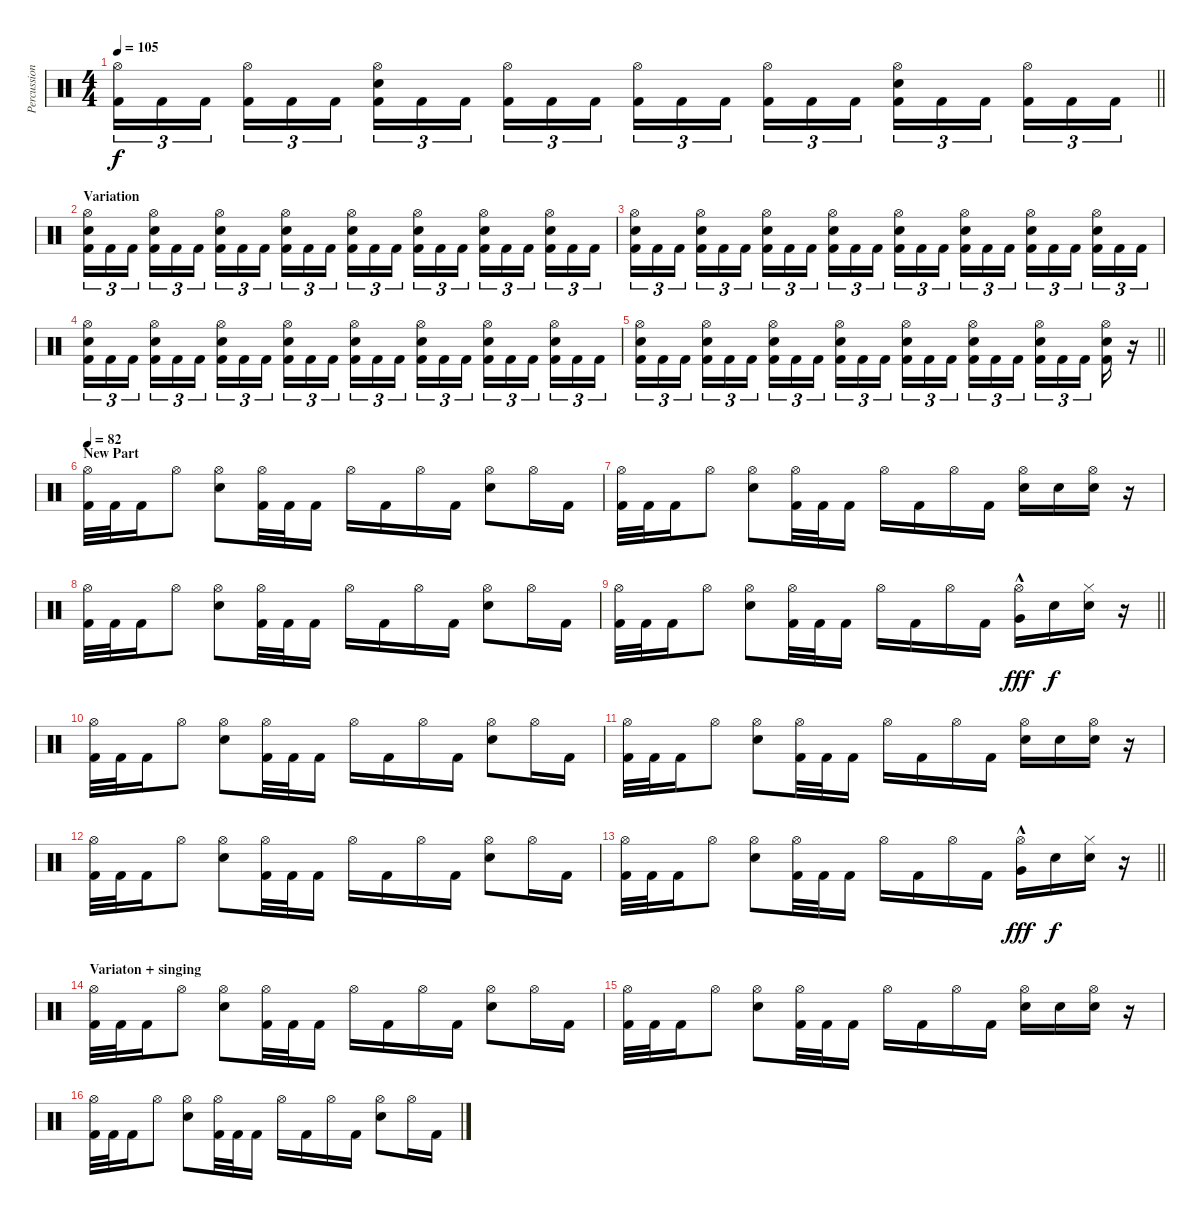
\track ("Percussion" "Percussion") {instrument percussion}
\staff {score}
\articulation defaults
\ts (4 4)
\tempo 105
\clef neutral
\barLineRight lightlight
\ks c
("Hi-Hat (open)" "Kick (hit) 2").16{tu (3 2) dy f} "Kick (hit) 2".16{tu (3 2)} "Kick (hit) 2".16{tu (3 2) beam splitsecondary} ("Hi-Hat (open)" "Kick (hit) 2").16{tu (3 2)} "Kick (hit) 2".16{tu (3 2)} "Kick (hit) 2".16{tu (3 2)} ("Hi-Hat (open)" "Electric Snare (hit)" "Kick (hit) 2").16{tu (3 2)} "Kick (hit) 2".16{tu (3 2)} "Kick (hit) 2".16{tu (3 2) beam splitsecondary} ("Hi-Hat (open)" "Kick (hit) 2").16{tu (3 2)} "Kick (hit) 2".16{tu (3 2)} "Kick (hit) 2".16{tu (3 2)} ("Hi-Hat (open)" "Kick (hit) 2").16{tu (3 2)} "Kick (hit) 2".16{tu (3 2)} "Kick (hit) 2".16{tu (3 2) beam splitsecondary} ("Hi-Hat (open)" "Kick (hit) 2").16{tu (3 2)} "Kick (hit) 2".16{tu (3 2)} "Kick (hit) 2".16{tu (3 2)} ("Hi-Hat (open)" "Electric Snare (hit)" "Kick (hit) 2").16{tu (3 2)} "Kick (hit) 2".16{tu (3 2)} "Kick (hit) 2".16{tu (3 2) beam splitsecondary} ("Hi-Hat (open)" "Kick (hit) 2").16{tu (3 2)} "Kick (hit) 2".16{tu (3 2)} "Kick (hit) 2".16{tu (3 2)} |
\section ("" "Variation")
("Hi-Hat (open)" "Electric Snare (hit)" "Kick (hit) 2").16{tu (3 2)} "Kick (hit) 2".16{tu (3 2)} "Kick (hit) 2".16{tu (3 2) beam splitsecondary} ("Hi-Hat (open)" "Electric Snare (hit)" "Kick (hit) 2").16{tu (3 2)} "Kick (hit) 2".16{tu (3 2)} "Kick (hit) 2".16{tu (3 2)} ("Hi-Hat (open)" "Electric Snare (hit)" "Kick (hit) 2").16{tu (3 2)} "Kick (hit) 2".16{tu (3 2)} "Kick (hit) 2".16{tu (3 2) beam splitsecondary} ("Hi-Hat (open)" "Electric Snare (hit)" "Kick (hit) 2").16{tu (3 2)} "Kick (hit) 2".16{tu (3 2)} "Kick (hit) 2".16{tu (3 2)} ("Hi-Hat (open)" "Electric Snare (hit)" "Kick (hit) 2").16{tu (3 2)} "Kick (hit) 2".16{tu (3 2)} "Kick (hit) 2".16{tu (3 2) beam splitsecondary} ("Hi-Hat (open)" "Electric Snare (hit)" "Kick (hit) 2").16{tu (3 2)} "Kick (hit) 2".16{tu (3 2)} "Kick (hit) 2".16{tu (3 2)} ("Hi-Hat (open)" "Electric Snare (hit)" "Kick (hit) 2").16{tu (3 2)} "Kick (hit) 2".16{tu (3 2)} "Kick (hit) 2".16{tu (3 2) beam splitsecondary} ("Hi-Hat (open)" "Electric Snare (hit)" "Kick (hit) 2").16{tu (3 2)} "Kick (hit) 2".16{tu (3 2)} "Kick (hit) 2".16{tu (3 2)} |
("Hi-Hat (open)" "Electric Snare (hit)" "Kick (hit) 2").16{tu (3 2)} "Kick (hit) 2".16{tu (3 2)} "Kick (hit) 2".16{tu (3 2) beam splitsecondary} ("Hi-Hat (open)" "Electric Snare (hit)" "Kick (hit) 2").16{tu (3 2)} "Kick (hit) 2".16{tu (3 2)} "Kick (hit) 2".16{tu (3 2)} ("Hi-Hat (open)" "Electric Snare (hit)" "Kick (hit) 2").16{tu (3 2)} "Kick (hit) 2".16{tu (3 2)} "Kick (hit) 2".16{tu (3 2) beam splitsecondary} ("Hi-Hat (open)" "Electric Snare (hit)" "Kick (hit) 2").16{tu (3 2)} "Kick (hit) 2".16{tu (3 2)} "Kick (hit) 2".16{tu (3 2)} ("Hi-Hat (open)" "Electric Snare (hit)" "Kick (hit) 2").16{tu (3 2)} "Kick (hit) 2".16{tu (3 2)} "Kick (hit) 2".16{tu (3 2) beam splitsecondary} ("Hi-Hat (open)" "Electric Snare (hit)" "Kick (hit) 2").16{tu (3 2)} "Kick (hit) 2".16{tu (3 2)} "Kick (hit) 2".16{tu (3 2)} ("Hi-Hat (open)" "Electric Snare (hit)" "Kick (hit) 2").16{tu (3 2)} "Kick (hit) 2".16{tu (3 2)} "Kick (hit) 2".16{tu (3 2) beam splitsecondary} ("Hi-Hat (open)" "Electric Snare (hit)" "Kick (hit) 2").16{tu (3 2)} "Kick (hit) 2".16{tu (3 2)} "Kick (hit) 2".16{tu (3 2)} |
("Hi-Hat (open)" "Electric Snare (hit)" "Kick (hit) 2").16{tu (3 2)} "Kick (hit) 2".16{tu (3 2)} "Kick (hit) 2".16{tu (3 2) beam splitsecondary} ("Hi-Hat (open)" "Electric Snare (hit)" "Kick (hit) 2").16{tu (3 2)} "Kick (hit) 2".16{tu (3 2)} "Kick (hit) 2".16{tu (3 2)} ("Hi-Hat (open)" "Electric Snare (hit)" "Kick (hit) 2").16{tu (3 2)} "Kick (hit) 2".16{tu (3 2)} "Kick (hit) 2".16{tu (3 2) beam splitsecondary} ("Hi-Hat (open)" "Electric Snare (hit)" "Kick (hit) 2").16{tu (3 2)} "Kick (hit) 2".16{tu (3 2)} "Kick (hit) 2".16{tu (3 2)} ("Hi-Hat (open)" "Electric Snare (hit)" "Kick (hit) 2").16{tu (3 2)} "Kick (hit) 2".16{tu (3 2)} "Kick (hit) 2".16{tu (3 2) beam splitsecondary} ("Hi-Hat (open)" "Electric Snare (hit)" "Kick (hit) 2").16{tu (3 2)} "Kick (hit) 2".16{tu (3 2)} "Kick (hit) 2".16{tu (3 2)} ("Hi-Hat (open)" "Electric Snare (hit)" "Kick (hit) 2").16{tu (3 2)} "Kick (hit) 2".16{tu (3 2)} "Kick (hit) 2".16{tu (3 2) beam splitsecondary} ("Hi-Hat (open)" "Electric Snare (hit)" "Kick (hit) 2").16{tu (3 2)} "Kick (hit) 2".16{tu (3 2)} "Kick (hit) 2".16{tu (3 2)} |
\barLineRight lightlight
("Hi-Hat (open)" "Electric Snare (hit)" "Kick (hit) 2").16{tu (3 2)} "Kick (hit) 2".16{tu (3 2)} "Kick (hit) 2".16{tu (3 2) beam splitsecondary} ("Hi-Hat (open)" "Electric Snare (hit)" "Kick (hit) 2").16{tu (3 2)} "Kick (hit) 2".16{tu (3 2)} "Kick (hit) 2".16{tu (3 2)} ("Hi-Hat (open)" "Electric Snare (hit)" "Kick (hit) 2").16{tu (3 2)} "Kick (hit) 2".16{tu (3 2)} "Kick (hit) 2".16{tu (3 2) beam splitsecondary} ("Hi-Hat (open)" "Electric Snare (hit)" "Kick (hit) 2").16{tu (3 2)} "Kick (hit) 2".16{tu (3 2)} "Kick (hit) 2".16{tu (3 2)} ("Hi-Hat (open)" "Electric Snare (hit)" "Kick (hit) 2").16{tu (3 2)} "Kick (hit) 2".16{tu (3 2)} "Kick (hit) 2".16{tu (3 2) beam splitsecondary} ("Hi-Hat (open)" "Electric Snare (hit)" "Kick (hit) 2").16{tu (3 2)} "Kick (hit) 2".16{tu (3 2)} "Kick (hit) 2".16{tu (3 2)} ("Hi-Hat (open)" "Electric Snare (hit)" "Kick (hit) 2").16{tu (3 2)} "Kick (hit) 2".16{tu (3 2)} "Kick (hit) 2".16{tu (3 2) beam splitsecondary} ("Hi-Hat (open)" "Electric Snare (hit)" "Kick (hit) 2").16 r.16 |
\section ("" "New Part")
\tempo 82
("Hi-Hat (open)" "Kick (hit) 2").32 "Kick (hit) 2".32 "Kick (hit) 2".16 "Hi-Hat (open)".8 ("Hi-Hat (open)" "Electric Snare (hit)").8 ("Hi-Hat (open)" "Kick (hit) 2").32 "Kick (hit) 2".32 "Kick (hit) 2".16 "Hi-Hat (open)".16 "Kick (hit) 2".16 "Hi-Hat (open)".16 "Kick (hit) 2".16 ("Hi-Hat (open)" "Electric Snare (hit)").8 "Hi-Hat (open)".16 "Kick (hit) 2".16 |
("Hi-Hat (open)" "Kick (hit) 2").32 "Kick (hit) 2".32 "Kick (hit) 2".16 "Hi-Hat (open)".8 ("Hi-Hat (open)" "Electric Snare (hit)").8 ("Hi-Hat (open)" "Kick (hit) 2").32 "Kick (hit) 2".32 "Kick (hit) 2".16 "Hi-Hat (open)".16 "Kick (hit) 2".16 "Hi-Hat (open)".16 "Kick (hit) 2".16 ("Hi-Hat (open)" "Electric Snare (hit)").16 "Electric Snare (hit)".16 ("Hi-Hat (open)" "Electric Snare (hit)").16 r.16 |
("Hi-Hat (open)" "Kick (hit) 2").32 "Kick (hit) 2".32 "Kick (hit) 2".16 "Hi-Hat (open)".8 ("Hi-Hat (open)" "Electric Snare (hit)").8 ("Hi-Hat (open)" "Kick (hit) 2").32 "Kick (hit) 2".32 "Kick (hit) 2".16 "Hi-Hat (open)".16 "Kick (hit) 2".16 "Hi-Hat (open)".16 "Kick (hit) 2".16 ("Hi-Hat (open)" "Electric Snare (hit)").8 "Hi-Hat (open)".16 "Kick (hit) 2".16 |
\barLineRight lightlight
("Hi-Hat (open)" "Kick (hit) 2").32 "Kick (hit) 2".32 "Kick (hit) 2".16 "Hi-Hat (open)".8 ("Hi-Hat (open)" "Electric Snare (hit)").8 ("Hi-Hat (open)" "Kick (hit) 2").32 "Kick (hit) 2".32 "Kick (hit) 2".16 "Hi-Hat (open)".16 "Kick (hit) 2".16 "Hi-Hat (open)".16 "Kick (hit) 2".16 ("Hi-Hat (open)" "Very Low Tom (hit)"{hac}).16{dy fff} "Electric Snare (hit)".16{dy f} ("Hi-Hat (closed)" "Electric Snare (hit)").16 r.16 |
("Hi-Hat (open)" "Kick (hit) 2").32 "Kick (hit) 2".32 "Kick (hit) 2".16 "Hi-Hat (open)".8 ("Hi-Hat (open)" "Electric Snare (hit)").8 ("Hi-Hat (open)" "Kick (hit) 2").32 "Kick (hit) 2".32 "Kick (hit) 2".16 "Hi-Hat (open)".16 "Kick (hit) 2".16 "Hi-Hat (open)".16 "Kick (hit) 2".16 ("Hi-Hat (open)" "Electric Snare (hit)").8 "Hi-Hat (open)".16 "Kick (hit) 2".16 |
("Hi-Hat (open)" "Kick (hit) 2").32 "Kick (hit) 2".32 "Kick (hit) 2".16 "Hi-Hat (open)".8 ("Hi-Hat (open)" "Electric Snare (hit)").8 ("Hi-Hat (open)" "Kick (hit) 2").32 "Kick (hit) 2".32 "Kick (hit) 2".16 "Hi-Hat (open)".16 "Kick (hit) 2".16 "Hi-Hat (open)".16 "Kick (hit) 2".16 ("Hi-Hat (open)" "Electric Snare (hit)").16 "Electric Snare (hit)".16 ("Hi-Hat (open)" "Electric Snare (hit)").16 r.16 |
("Hi-Hat (open)" "Kick (hit) 2").32 "Kick (hit) 2".32 "Kick (hit) 2".16 "Hi-Hat (open)".8 ("Hi-Hat (open)" "Electric Snare (hit)").8 ("Hi-Hat (open)" "Kick (hit) 2").32 "Kick (hit) 2".32 "Kick (hit) 2".16 "Hi-Hat (open)".16 "Kick (hit) 2".16 "Hi-Hat (open)".16 "Kick (hit) 2".16 ("Hi-Hat (open)" "Electric Snare (hit)").8 "Hi-Hat (open)".16 "Kick (hit) 2".16 |
\barLineRight lightlight
("Hi-Hat (open)" "Kick (hit) 2").32 "Kick (hit) 2".32 "Kick (hit) 2".16 "Hi-Hat (open)".8 ("Hi-Hat (open)" "Electric Snare (hit)").8 ("Hi-Hat (open)" "Kick (hit) 2").32 "Kick (hit) 2".32 "Kick (hit) 2".16 "Hi-Hat (open)".16 "Kick (hit) 2".16 "Hi-Hat (open)".16 "Kick (hit) 2".16 ("Hi-Hat (open)" "Very Low Tom (hit)"{hac}).16{dy fff} "Electric Snare (hit)".16{dy f} ("Hi-Hat (closed)" "Electric Snare (hit)").16 r.16 |
\section ("" "Variaton + singing")
("Hi-Hat (open)" "Kick (hit) 2").32 "Kick (hit) 2".32 "Kick (hit) 2".16 "Hi-Hat (open)".8 ("Hi-Hat (open)" "Electric Snare (hit)").8 ("Hi-Hat (open)" "Kick (hit) 2").32 "Kick (hit) 2".32 "Kick (hit) 2".16 "Hi-Hat (open)".16 "Kick (hit) 2".16 "Hi-Hat (open)".16 "Kick (hit) 2".16 ("Hi-Hat (open)" "Electric Snare (hit)").8 "Hi-Hat (open)".16 "Kick (hit) 2".16 |
("Hi-Hat (open)" "Kick (hit) 2").32 "Kick (hit) 2".32 "Kick (hit) 2".16 "Hi-Hat (open)".8 ("Hi-Hat (open)" "Electric Snare (hit)").8 ("Hi-Hat (open)" "Kick (hit) 2").32 "Kick (hit) 2".32 "Kick (hit) 2".16 "Hi-Hat (open)".16 "Kick (hit) 2".16 "Hi-Hat (open)".16 "Kick (hit) 2".16 ("Hi-Hat (open)" "Electric Snare (hit)").16 "Electric Snare (hit)".16 ("Hi-Hat (open)" "Electric Snare (hit)").16 r.16 |
("Hi-Hat (open)" "Kick (hit) 2").32 "Kick (hit) 2".32 "Kick (hit) 2".16 "Hi-Hat (open)".8 ("Hi-Hat (open)" "Electric Snare (hit)").8 ("Hi-Hat (open)" "Kick (hit) 2").32 "Kick (hit) 2".32 "Kick (hit) 2".16 "Hi-Hat (open)".16 "Kick (hit) 2".16 "Hi-Hat (open)".16 "Kick (hit) 2".16 ("Hi-Hat (open)" "Electric Snare (hit)").8 "Hi-Hat (open)".16 "Kick (hit) 2".16
